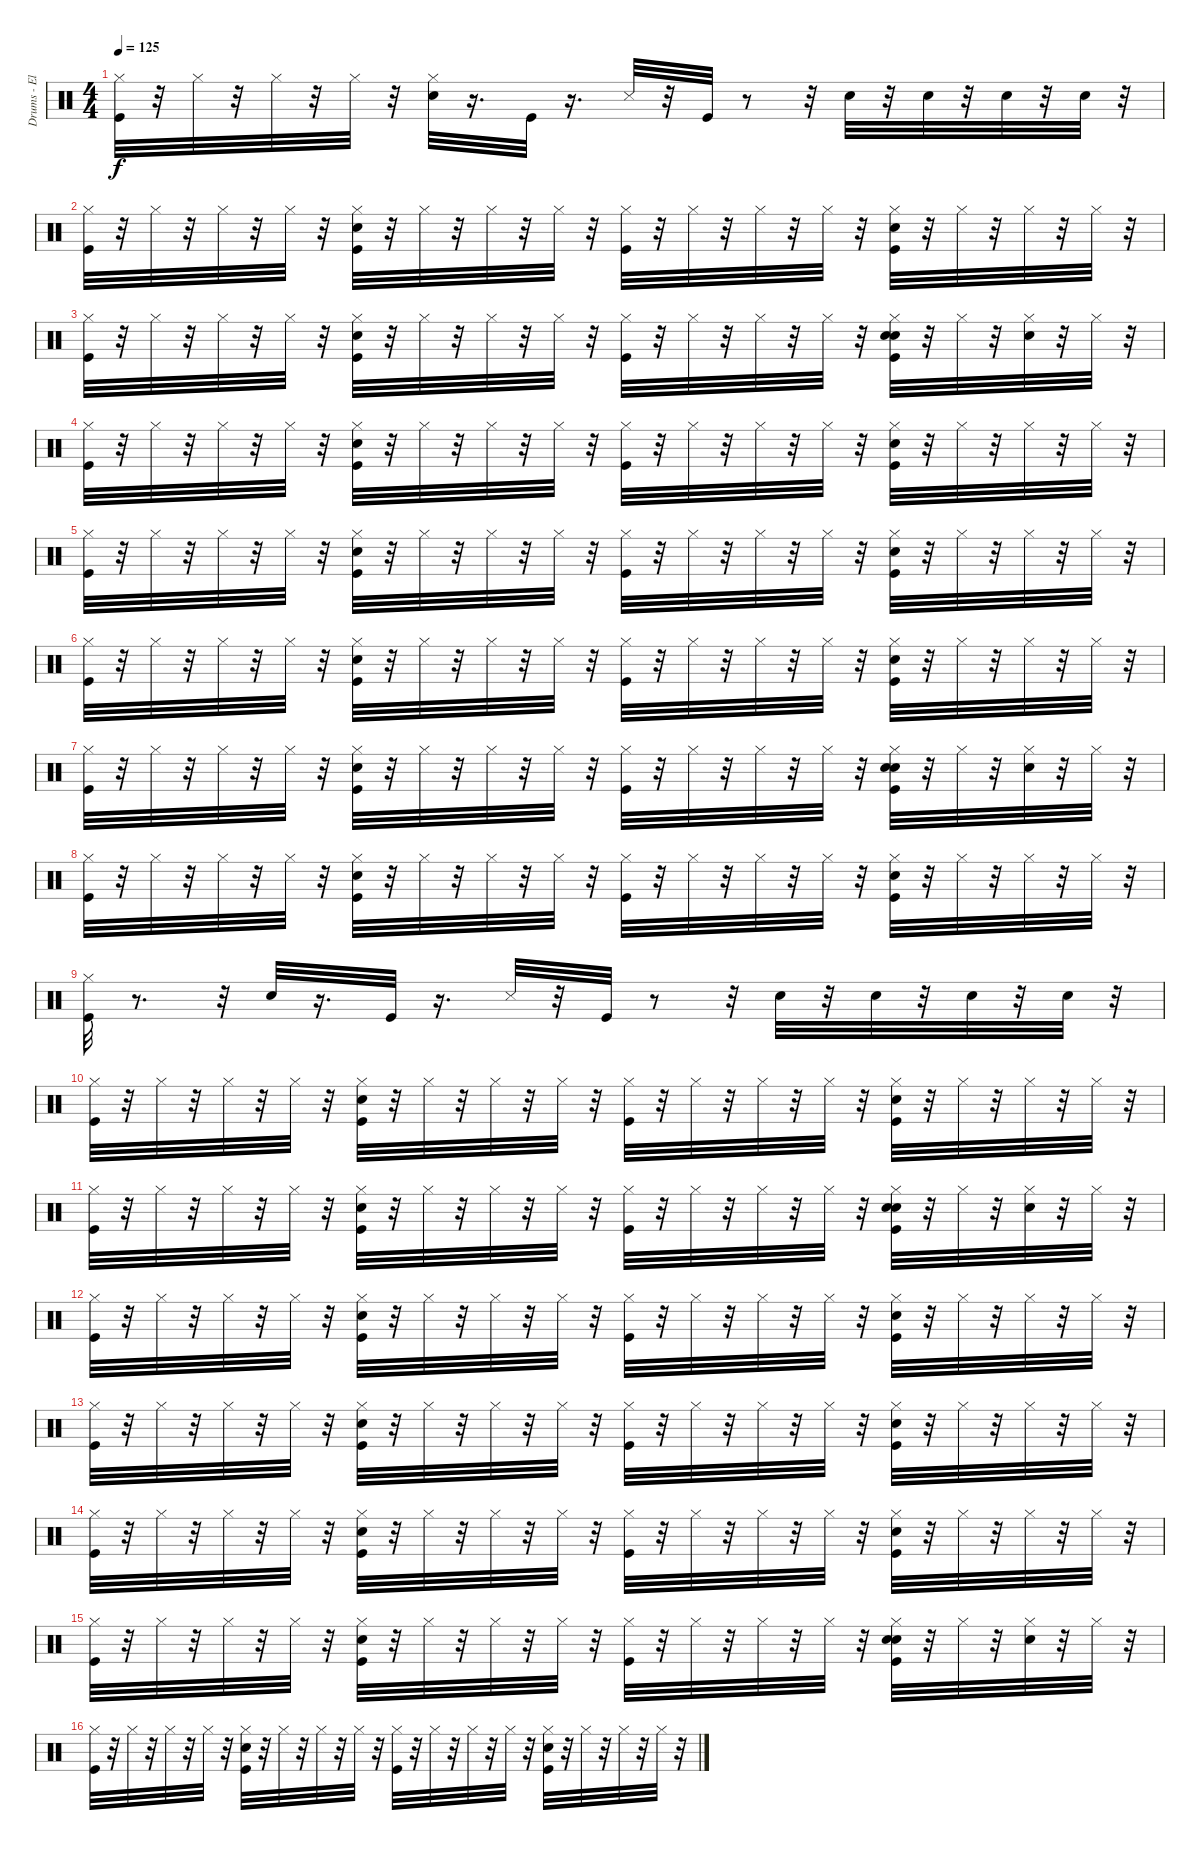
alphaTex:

\track ("Drums - El" "Drums - El") {instrument percussion}
\staff {score}
\articulation defaults
\ts (4 4)
\tempo 125
\clef neutral
\ks c
("Kick (hit)" "Hi-Hat (closed)").32{dy f} r.32 "Hi-Hat (closed)".32 r.32 "Hi-Hat (closed)".32 r.32 "Hi-Hat (closed)".32 r.32 ("Electric Snare (hit)" "Hi-Hat (closed)").32 r.16{d} "Kick (hit)".32 r.16{d} "Snare (side stick) 3".32 r.32 "Kick (hit)".32 r.8 r.32 "Electric Snare (hit)".32 r.32 "Electric Snare (hit)".32 r.32 "Electric Snare (hit)".32 r.32 "Electric Snare (hit)".32 r.32 |
("Kick (hit)" "Hi-Hat (closed)").32 r.32 "Hi-Hat (closed)".32 r.32 "Hi-Hat (closed)".32 r.32 "Hi-Hat (closed)".32 r.32 ("Kick (hit)" "Electric Snare (hit)" "Hi-Hat (closed)").32 r.32 "Hi-Hat (closed)".32 r.32 "Hi-Hat (closed)".32 r.32 "Hi-Hat (closed)".32 r.32 ("Kick (hit)" "Hi-Hat (closed)").32 r.32 "Hi-Hat (closed)".32 r.32 "Hi-Hat (closed)".32 r.32 "Hi-Hat (closed)".32 r.32 ("Kick (hit)" "Electric Snare (hit)" "Hi-Hat (closed)").32 r.32 "Hi-Hat (closed)".32 r.32 "Hi-Hat (closed)".32 r.32 "Hi-Hat (closed)".32 r.32 |
("Kick (hit)" "Hi-Hat (closed)").32 r.32 "Hi-Hat (closed)".32 r.32 "Hi-Hat (closed)".32 r.32 "Hi-Hat (closed)".32 r.32 ("Kick (hit)" "Electric Snare (hit)" "Hi-Hat (closed)").32 r.32 "Hi-Hat (closed)".32 r.32 "Hi-Hat (closed)".32 r.32 "Hi-Hat (closed)".32 r.32 ("Kick (hit)" "Hi-Hat (closed)").32 r.32 "Hi-Hat (closed)".32 r.32 "Hi-Hat (closed)".32 r.32 "Hi-Hat (closed)".32 r.32 ("Kick (hit)" "Electric Snare (hit)" "Hand Clap (hit)" "Hi-Hat (closed)").32 r.32 "Hi-Hat (closed)".32 r.32 ("Hand Clap (hit)" "Hi-Hat (closed)").32 r.32 "Hi-Hat (closed)".32 r.32 |
("Kick (hit)" "Hi-Hat (closed)").32 r.32 "Hi-Hat (closed)".32 r.32 "Hi-Hat (closed)".32 r.32 "Hi-Hat (closed)".32 r.32 ("Kick (hit)" "Electric Snare (hit)" "Hi-Hat (closed)").32 r.32 "Hi-Hat (closed)".32 r.32 "Hi-Hat (closed)".32 r.32 "Hi-Hat (closed)".32 r.32 ("Kick (hit)" "Hi-Hat (closed)").32 r.32 "Hi-Hat (closed)".32 r.32 "Hi-Hat (closed)".32 r.32 "Hi-Hat (closed)".32 r.32 ("Kick (hit)" "Electric Snare (hit)" "Hi-Hat (closed)").32 r.32 "Hi-Hat (closed)".32 r.32 "Hi-Hat (closed)".32 r.32 "Hi-Hat (closed)".32 r.32 |
("Kick (hit)" "Hi-Hat (closed)").32 r.32 "Hi-Hat (closed)".32 r.32 "Hi-Hat (closed)".32 r.32 "Hi-Hat (closed)".32 r.32 ("Kick (hit)" "Electric Snare (hit)" "Hi-Hat (closed)").32 r.32 "Hi-Hat (closed)".32 r.32 "Hi-Hat (closed)".32 r.32 "Hi-Hat (closed)".32 r.32 ("Kick (hit)" "Hi-Hat (closed)").32 r.32 "Hi-Hat (closed)".32 r.32 "Hi-Hat (closed)".32 r.32 "Hi-Hat (closed)".32 r.32 ("Kick (hit)" "Electric Snare (hit)" "Hi-Hat (closed)").32 r.32 "Hi-Hat (closed)".32 r.32 "Hi-Hat (closed)".32 r.32 "Hi-Hat (closed)".32 r.32 |
("Kick (hit)" "Hi-Hat (closed)").32 r.32 "Hi-Hat (closed)".32 r.32 "Hi-Hat (closed)".32 r.32 "Hi-Hat (closed)".32 r.32 ("Kick (hit)" "Electric Snare (hit)" "Hi-Hat (closed)").32 r.32 "Hi-Hat (closed)".32 r.32 "Hi-Hat (closed)".32 r.32 "Hi-Hat (closed)".32 r.32 ("Kick (hit)" "Hi-Hat (closed)").32 r.32 "Hi-Hat (closed)".32 r.32 "Hi-Hat (closed)".32 r.32 "Hi-Hat (closed)".32 r.32 ("Kick (hit)" "Electric Snare (hit)" "Hi-Hat (closed)").32 r.32 "Hi-Hat (closed)".32 r.32 "Hi-Hat (closed)".32 r.32 "Hi-Hat (closed)".32 r.32 |
("Kick (hit)" "Hi-Hat (closed)").32 r.32 "Hi-Hat (closed)".32 r.32 "Hi-Hat (closed)".32 r.32 "Hi-Hat (closed)".32 r.32 ("Kick (hit)" "Electric Snare (hit)" "Hi-Hat (closed)").32 r.32 "Hi-Hat (closed)".32 r.32 "Hi-Hat (closed)".32 r.32 "Hi-Hat (closed)".32 r.32 ("Kick (hit)" "Hi-Hat (closed)").32 r.32 "Hi-Hat (closed)".32 r.32 "Hi-Hat (closed)".32 r.32 "Hi-Hat (closed)".32 r.32 ("Kick (hit)" "Electric Snare (hit)" "Hand Clap (hit)" "Hi-Hat (closed)").32 r.32 "Hi-Hat (closed)".32 r.32 ("Hand Clap (hit)" "Hi-Hat (closed)").32 r.32 "Hi-Hat (closed)".32 r.32 |
("Kick (hit)" "Hi-Hat (closed)").32 r.32 "Hi-Hat (closed)".32 r.32 "Hi-Hat (closed)".32 r.32 "Hi-Hat (closed)".32 r.32 ("Kick (hit)" "Electric Snare (hit)" "Hi-Hat (closed)").32 r.32 "Hi-Hat (closed)".32 r.32 "Hi-Hat (closed)".32 r.32 "Hi-Hat (closed)".32 r.32 ("Kick (hit)" "Hi-Hat (closed)").32 r.32 "Hi-Hat (closed)".32 r.32 "Hi-Hat (closed)".32 r.32 "Hi-Hat (closed)".32 r.32 ("Kick (hit)" "Electric Snare (hit)" "Hi-Hat (closed)").32 r.32 "Hi-Hat (closed)".32 r.32 "Hi-Hat (closed)".32 r.32 "Hi-Hat (closed)".32 r.32 |
("Kick (hit)" "Hi-Hat (closed)").32 r.8{d} r.32 "Electric Snare (hit)".32 r.16{d} "Kick (hit)".32 r.16{d} "Snare (side stick) 3".32 r.32 "Kick (hit)".32 r.8 r.32 "Electric Snare (hit)".32 r.32 "Electric Snare (hit)".32 r.32 "Electric Snare (hit)".32 r.32 "Electric Snare (hit)".32 r.32 |
("Kick (hit)" "Hi-Hat (closed)").32 r.32 "Hi-Hat (closed)".32 r.32 "Hi-Hat (closed)".32 r.32 "Hi-Hat (closed)".32 r.32 ("Kick (hit)" "Electric Snare (hit)" "Hi-Hat (closed)").32 r.32 "Hi-Hat (closed)".32 r.32 "Hi-Hat (closed)".32 r.32 "Hi-Hat (closed)".32 r.32 ("Kick (hit)" "Hi-Hat (closed)").32 r.32 "Hi-Hat (closed)".32 r.32 "Hi-Hat (closed)".32 r.32 "Hi-Hat (closed)".32 r.32 ("Kick (hit)" "Electric Snare (hit)" "Hi-Hat (closed)").32 r.32 "Hi-Hat (closed)".32 r.32 "Hi-Hat (closed)".32 r.32 "Hi-Hat (closed)".32 r.32 |
("Kick (hit)" "Hi-Hat (closed)").32 r.32 "Hi-Hat (closed)".32 r.32 "Hi-Hat (closed)".32 r.32 "Hi-Hat (closed)".32 r.32 ("Kick (hit)" "Electric Snare (hit)" "Hi-Hat (closed)").32 r.32 "Hi-Hat (closed)".32 r.32 "Hi-Hat (closed)".32 r.32 "Hi-Hat (closed)".32 r.32 ("Kick (hit)" "Hi-Hat (closed)").32 r.32 "Hi-Hat (closed)".32 r.32 "Hi-Hat (closed)".32 r.32 "Hi-Hat (closed)".32 r.32 ("Kick (hit)" "Electric Snare (hit)" "Hand Clap (hit)" "Hi-Hat (closed)").32 r.32 "Hi-Hat (closed)".32 r.32 ("Hand Clap (hit)" "Hi-Hat (closed)").32 r.32 "Hi-Hat (closed)".32 r.32 |
("Kick (hit)" "Hi-Hat (closed)").32 r.32 "Hi-Hat (closed)".32 r.32 "Hi-Hat (closed)".32 r.32 "Hi-Hat (closed)".32 r.32 ("Kick (hit)" "Electric Snare (hit)" "Hi-Hat (closed)").32 r.32 "Hi-Hat (closed)".32 r.32 "Hi-Hat (closed)".32 r.32 "Hi-Hat (closed)".32 r.32 ("Kick (hit)" "Hi-Hat (closed)").32 r.32 "Hi-Hat (closed)".32 r.32 "Hi-Hat (closed)".32 r.32 "Hi-Hat (closed)".32 r.32 ("Kick (hit)" "Electric Snare (hit)" "Hi-Hat (closed)").32 r.32 "Hi-Hat (closed)".32 r.32 "Hi-Hat (closed)".32 r.32 "Hi-Hat (closed)".32 r.32 |
("Kick (hit)" "Hi-Hat (closed)").32 r.32 "Hi-Hat (closed)".32 r.32 "Hi-Hat (closed)".32 r.32 "Hi-Hat (closed)".32 r.32 ("Kick (hit)" "Electric Snare (hit)" "Hi-Hat (closed)").32 r.32 "Hi-Hat (closed)".32 r.32 "Hi-Hat (closed)".32 r.32 "Hi-Hat (closed)".32 r.32 ("Kick (hit)" "Hi-Hat (closed)").32 r.32 "Hi-Hat (closed)".32 r.32 "Hi-Hat (closed)".32 r.32 "Hi-Hat (closed)".32 r.32 ("Kick (hit)" "Electric Snare (hit)" "Hi-Hat (closed)").32 r.32 "Hi-Hat (closed)".32 r.32 "Hi-Hat (closed)".32 r.32 "Hi-Hat (closed)".32 r.32 |
("Kick (hit)" "Hi-Hat (closed)").32 r.32 "Hi-Hat (closed)".32 r.32 "Hi-Hat (closed)".32 r.32 "Hi-Hat (closed)".32 r.32 ("Kick (hit)" "Electric Snare (hit)" "Hi-Hat (closed)").32 r.32 "Hi-Hat (closed)".32 r.32 "Hi-Hat (closed)".32 r.32 "Hi-Hat (closed)".32 r.32 ("Kick (hit)" "Hi-Hat (closed)").32 r.32 "Hi-Hat (closed)".32 r.32 "Hi-Hat (closed)".32 r.32 "Hi-Hat (closed)".32 r.32 ("Kick (hit)" "Electric Snare (hit)" "Hi-Hat (closed)").32 r.32 "Hi-Hat (closed)".32 r.32 "Hi-Hat (closed)".32 r.32 "Hi-Hat (closed)".32 r.32 |
("Kick (hit)" "Hi-Hat (closed)").32 r.32 "Hi-Hat (closed)".32 r.32 "Hi-Hat (closed)".32 r.32 "Hi-Hat (closed)".32 r.32 ("Kick (hit)" "Electric Snare (hit)" "Hi-Hat (closed)").32 r.32 "Hi-Hat (closed)".32 r.32 "Hi-Hat (closed)".32 r.32 "Hi-Hat (closed)".32 r.32 ("Kick (hit)" "Hi-Hat (closed)").32 r.32 "Hi-Hat (closed)".32 r.32 "Hi-Hat (closed)".32 r.32 "Hi-Hat (closed)".32 r.32 ("Kick (hit)" "Electric Snare (hit)" "Hand Clap (hit)" "Hi-Hat (closed)").32 r.32 "Hi-Hat (closed)".32 r.32 ("Hand Clap (hit)" "Hi-Hat (closed)").32 r.32 "Hi-Hat (closed)".32 r.32 |
("Kick (hit)" "Hi-Hat (closed)").32 r.32 "Hi-Hat (closed)".32 r.32 "Hi-Hat (closed)".32 r.32 "Hi-Hat (closed)".32 r.32 ("Kick (hit)" "Electric Snare (hit)" "Hi-Hat (closed)").32 r.32 "Hi-Hat (closed)".32 r.32 "Hi-Hat (closed)".32 r.32 "Hi-Hat (closed)".32 r.32 ("Kick (hit)" "Hi-Hat (closed)").32 r.32 "Hi-Hat (closed)".32 r.32 "Hi-Hat (closed)".32 r.32 "Hi-Hat (closed)".32 r.32 ("Kick (hit)" "Electric Snare (hit)" "Hi-Hat (closed)").32 r.32 "Hi-Hat (closed)".32 r.32 "Hi-Hat (closed)".32 r.32 "Hi-Hat (closed)".32 r.32
